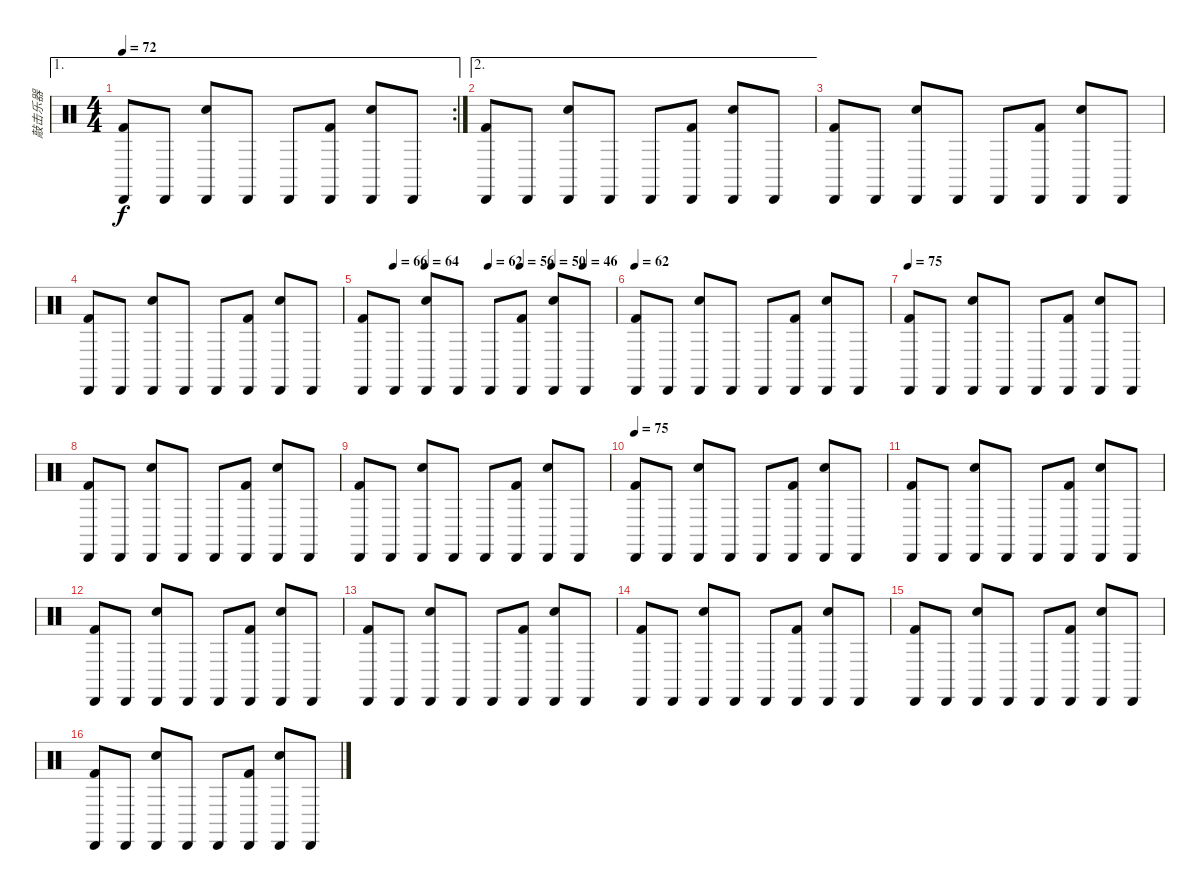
\track ("敲击乐器" "敲击乐器") {instrument percussion}
\staff {score}
\articulation defaults
\ae 1
\rc 2
\ts (4 4)
\tempo 72
\clef neutral
\ks c
("Cabasa (hit)" "Kick (hit) 2").8{dy f} "Cabasa (hit)".8 ("Cabasa (hit)" "Electric Snare (hit)").8 "Cabasa (hit)".8 "Cabasa (hit)".8 ("Cabasa (hit)" "Kick (hit) 2").8 ("Cabasa (hit)" "Electric Snare (hit)").8 "Cabasa (hit)".8 |
\ae 2
("Cabasa (hit)" "Kick (hit) 2").8 "Cabasa (hit)".8 ("Cabasa (hit)" "Electric Snare (hit)").8 "Cabasa (hit)".8 "Cabasa (hit)".8 ("Cabasa (hit)" "Kick (hit) 2").8 ("Cabasa (hit)" "Electric Snare (hit)").8 "Cabasa (hit)".8 |
("Cabasa (hit)" "Kick (hit) 2").8 "Cabasa (hit)".8 ("Cabasa (hit)" "Electric Snare (hit)").8 "Cabasa (hit)".8 "Cabasa (hit)".8 ("Cabasa (hit)" "Kick (hit) 2").8 ("Cabasa (hit)" "Electric Snare (hit)").8 "Cabasa (hit)".8 |
("Cabasa (hit)" "Kick (hit) 2").8 "Cabasa (hit)".8 ("Cabasa (hit)" "Electric Snare (hit)").8 "Cabasa (hit)".8 "Cabasa (hit)".8 ("Cabasa (hit)" "Kick (hit) 2").8 ("Cabasa (hit)" "Electric Snare (hit)").8 "Cabasa (hit)".8 |
\tempo (66 0.125)
\tempo (64 0.25)
\tempo (62 0.5)
\tempo (56 0.625)
\tempo (50 0.75)
\tempo (46 0.875)
("Cabasa (hit)" "Kick (hit) 2").8 "Cabasa (hit)".8 ("Cabasa (hit)" "Electric Snare (hit)").8 "Cabasa (hit)".8 "Cabasa (hit)".8 ("Cabasa (hit)" "Kick (hit) 2").8 ("Cabasa (hit)" "Electric Snare (hit)").8 "Cabasa (hit)".8 |
\tempo 62
("Cabasa (hit)" "Kick (hit) 2").8 "Cabasa (hit)".8 ("Cabasa (hit)" "Electric Snare (hit)").8 "Cabasa (hit)".8 "Cabasa (hit)".8 ("Cabasa (hit)" "Kick (hit) 2").8 ("Cabasa (hit)" "Electric Snare (hit)").8 "Cabasa (hit)".8 |
\tempo 75
("Cabasa (hit)" "Kick (hit) 2").8 "Cabasa (hit)".8 ("Cabasa (hit)" "Electric Snare (hit)").8 "Cabasa (hit)".8 "Cabasa (hit)".8 ("Cabasa (hit)" "Kick (hit) 2").8 ("Cabasa (hit)" "Electric Snare (hit)").8 "Cabasa (hit)".8 |
("Cabasa (hit)" "Kick (hit) 2").8 "Cabasa (hit)".8 ("Cabasa (hit)" "Electric Snare (hit)").8 "Cabasa (hit)".8 "Cabasa (hit)".8 ("Cabasa (hit)" "Kick (hit) 2").8 ("Cabasa (hit)" "Electric Snare (hit)").8 "Cabasa (hit)".8 |
("Cabasa (hit)" "Kick (hit) 2").8 "Cabasa (hit)".8 ("Cabasa (hit)" "Electric Snare (hit)").8 "Cabasa (hit)".8 "Cabasa (hit)".8 ("Cabasa (hit)" "Kick (hit) 2").8 ("Cabasa (hit)" "Electric Snare (hit)").8 "Cabasa (hit)".8 |
\tempo 75
("Cabasa (hit)" "Kick (hit) 2").8 "Cabasa (hit)".8 ("Cabasa (hit)" "Electric Snare (hit)").8 "Cabasa (hit)".8 "Cabasa (hit)".8 ("Cabasa (hit)" "Kick (hit) 2").8 ("Cabasa (hit)" "Electric Snare (hit)").8 "Cabasa (hit)".8 |
("Cabasa (hit)" "Kick (hit) 2").8 "Cabasa (hit)".8 ("Cabasa (hit)" "Electric Snare (hit)").8 "Cabasa (hit)".8 "Cabasa (hit)".8 ("Cabasa (hit)" "Kick (hit) 2").8 ("Cabasa (hit)" "Electric Snare (hit)").8 "Cabasa (hit)".8 |
("Cabasa (hit)" "Kick (hit) 2").8 "Cabasa (hit)".8 ("Cabasa (hit)" "Electric Snare (hit)").8 "Cabasa (hit)".8 "Cabasa (hit)".8 ("Cabasa (hit)" "Kick (hit) 2").8 ("Cabasa (hit)" "Electric Snare (hit)").8 "Cabasa (hit)".8 |
("Cabasa (hit)" "Kick (hit) 2").8 "Cabasa (hit)".8 ("Cabasa (hit)" "Electric Snare (hit)").8 "Cabasa (hit)".8 "Cabasa (hit)".8 ("Cabasa (hit)" "Kick (hit) 2").8 ("Cabasa (hit)" "Electric Snare (hit)").8 "Cabasa (hit)".8 |
("Cabasa (hit)" "Kick (hit) 2").8 "Cabasa (hit)".8 ("Cabasa (hit)" "Electric Snare (hit)").8 "Cabasa (hit)".8 "Cabasa (hit)".8 ("Cabasa (hit)" "Kick (hit) 2").8 ("Cabasa (hit)" "Electric Snare (hit)").8 "Cabasa (hit)".8 |
("Cabasa (hit)" "Kick (hit) 2").8 "Cabasa (hit)".8 ("Cabasa (hit)" "Electric Snare (hit)").8 "Cabasa (hit)".8 "Cabasa (hit)".8 ("Cabasa (hit)" "Kick (hit) 2").8 ("Cabasa (hit)" "Electric Snare (hit)").8 "Cabasa (hit)".8 |
("Cabasa (hit)" "Kick (hit) 2").8 "Cabasa (hit)".8 ("Cabasa (hit)" "Electric Snare (hit)").8 "Cabasa (hit)".8 "Cabasa (hit)".8 ("Cabasa (hit)" "Kick (hit) 2").8 ("Cabasa (hit)" "Electric Snare (hit)").8 "Cabasa (hit)".8
